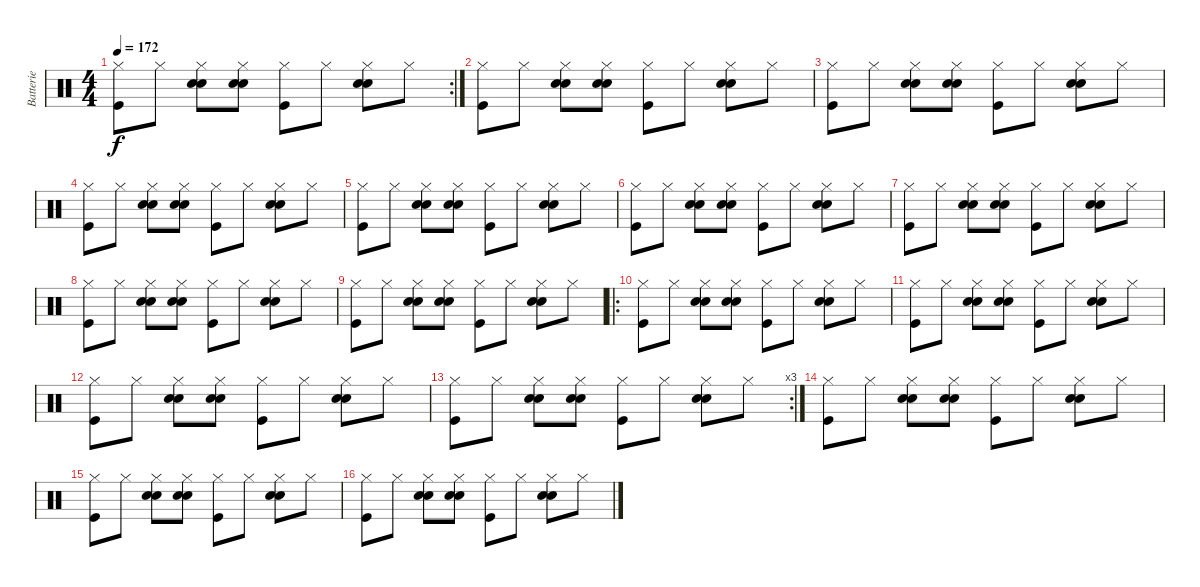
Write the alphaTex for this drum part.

\track ("Batterie" "Batterie") {instrument percussion}
\staff {score}
\articulation defaults
\rc 2
\ts (4 4)
\tempo 172
\clef neutral
\ks c
("Hi-Hat (closed)" "Kick (hit)").8{dy f} "Hi-Hat (closed)".8 ("Electric Snare (hit)" "Hi-Hat (closed)" "Snare (hit) 2").8 ("Electric Snare (hit)" "Hi-Hat (closed)" "Snare (hit) 2").8 ("Hi-Hat (closed)" "Kick (hit)").8 "Hi-Hat (closed)".8 ("Electric Snare (hit)" "Hi-Hat (closed)" "Snare (hit) 2").8 "Hi-Hat (closed)".8 |
("Hi-Hat (closed)" "Kick (hit)").8 "Hi-Hat (closed)".8 ("Electric Snare (hit)" "Hi-Hat (closed)" "Snare (hit) 2").8 ("Electric Snare (hit)" "Hi-Hat (closed)" "Snare (hit) 2").8 ("Hi-Hat (closed)" "Kick (hit)").8 "Hi-Hat (closed)".8 ("Electric Snare (hit)" "Hi-Hat (closed)" "Snare (hit) 2").8 "Hi-Hat (closed)".8 |
("Hi-Hat (closed)" "Kick (hit)").8 "Hi-Hat (closed)".8 ("Electric Snare (hit)" "Hi-Hat (closed)" "Snare (hit) 2").8 ("Electric Snare (hit)" "Hi-Hat (closed)" "Snare (hit) 2").8 ("Hi-Hat (closed)" "Kick (hit)").8 "Hi-Hat (closed)".8 ("Electric Snare (hit)" "Hi-Hat (closed)" "Snare (hit) 2").8 "Hi-Hat (closed)".8 |
("Hi-Hat (closed)" "Kick (hit)").8 "Hi-Hat (closed)".8 ("Electric Snare (hit)" "Hi-Hat (closed)" "Snare (hit) 2").8 ("Electric Snare (hit)" "Hi-Hat (closed)" "Snare (hit) 2").8 ("Hi-Hat (closed)" "Kick (hit)").8 "Hi-Hat (closed)".8 ("Electric Snare (hit)" "Hi-Hat (closed)" "Snare (hit) 2").8 "Hi-Hat (closed)".8 |
("Hi-Hat (closed)" "Kick (hit)").8 "Hi-Hat (closed)".8 ("Electric Snare (hit)" "Hi-Hat (closed)" "Snare (hit) 2").8 ("Electric Snare (hit)" "Hi-Hat (closed)" "Snare (hit) 2").8 ("Hi-Hat (closed)" "Kick (hit)").8 "Hi-Hat (closed)".8 ("Electric Snare (hit)" "Hi-Hat (closed)" "Snare (hit) 2").8 "Hi-Hat (closed)".8 |
("Hi-Hat (closed)" "Kick (hit)").8 "Hi-Hat (closed)".8 ("Electric Snare (hit)" "Hi-Hat (closed)" "Snare (hit) 2").8 ("Electric Snare (hit)" "Hi-Hat (closed)" "Snare (hit) 2").8 ("Hi-Hat (closed)" "Kick (hit)").8 "Hi-Hat (closed)".8 ("Electric Snare (hit)" "Hi-Hat (closed)" "Snare (hit) 2").8 "Hi-Hat (closed)".8 |
("Hi-Hat (closed)" "Kick (hit)").8 "Hi-Hat (closed)".8 ("Electric Snare (hit)" "Hi-Hat (closed)" "Snare (hit) 2").8 ("Electric Snare (hit)" "Hi-Hat (closed)" "Snare (hit) 2").8 ("Hi-Hat (closed)" "Kick (hit)").8 "Hi-Hat (closed)".8 ("Electric Snare (hit)" "Hi-Hat (closed)" "Snare (hit) 2").8 "Hi-Hat (closed)".8 |
("Hi-Hat (closed)" "Kick (hit)").8 "Hi-Hat (closed)".8 ("Electric Snare (hit)" "Hi-Hat (closed)" "Snare (hit) 2").8 ("Electric Snare (hit)" "Hi-Hat (closed)" "Snare (hit) 2").8 ("Hi-Hat (closed)" "Kick (hit)").8 "Hi-Hat (closed)".8 ("Electric Snare (hit)" "Hi-Hat (closed)" "Snare (hit) 2").8 "Hi-Hat (closed)".8 |
("Hi-Hat (closed)" "Kick (hit)").8 "Hi-Hat (closed)".8 ("Electric Snare (hit)" "Hi-Hat (closed)" "Snare (hit) 2").8 ("Electric Snare (hit)" "Hi-Hat (closed)" "Snare (hit) 2").8 ("Hi-Hat (closed)" "Kick (hit)").8 "Hi-Hat (closed)".8 ("Electric Snare (hit)" "Hi-Hat (closed)" "Snare (hit) 2").8 "Hi-Hat (closed)".8 |
\ro
("Hi-Hat (closed)" "Kick (hit)").8 "Hi-Hat (closed)".8 ("Electric Snare (hit)" "Hi-Hat (closed)" "Snare (hit) 2").8 ("Electric Snare (hit)" "Hi-Hat (closed)" "Snare (hit) 2").8 ("Hi-Hat (closed)" "Kick (hit)").8 "Hi-Hat (closed)".8 ("Electric Snare (hit)" "Hi-Hat (closed)" "Snare (hit) 2").8 "Hi-Hat (closed)".8 |
("Hi-Hat (closed)" "Kick (hit)").8 "Hi-Hat (closed)".8 ("Electric Snare (hit)" "Hi-Hat (closed)" "Snare (hit) 2").8 ("Electric Snare (hit)" "Hi-Hat (closed)" "Snare (hit) 2").8 ("Hi-Hat (closed)" "Kick (hit)").8 "Hi-Hat (closed)".8 ("Electric Snare (hit)" "Hi-Hat (closed)" "Snare (hit) 2").8 "Hi-Hat (closed)".8 |
("Hi-Hat (closed)" "Kick (hit)").8 "Hi-Hat (closed)".8 ("Electric Snare (hit)" "Hi-Hat (closed)" "Snare (hit) 2").8 ("Electric Snare (hit)" "Hi-Hat (closed)" "Snare (hit) 2").8 ("Hi-Hat (closed)" "Kick (hit)").8 "Hi-Hat (closed)".8 ("Electric Snare (hit)" "Hi-Hat (closed)" "Snare (hit) 2").8 "Hi-Hat (closed)".8 |
\rc 3
("Hi-Hat (closed)" "Kick (hit)").8 "Hi-Hat (closed)".8 ("Electric Snare (hit)" "Hi-Hat (closed)" "Snare (hit) 2").8 ("Electric Snare (hit)" "Hi-Hat (closed)" "Snare (hit) 2").8 ("Hi-Hat (closed)" "Kick (hit)").8 "Hi-Hat (closed)".8 ("Electric Snare (hit)" "Hi-Hat (closed)" "Snare (hit) 2").8 "Hi-Hat (closed)".8 |
("Hi-Hat (closed)" "Kick (hit)").8 "Hi-Hat (closed)".8 ("Electric Snare (hit)" "Hi-Hat (closed)" "Snare (hit) 2").8 ("Electric Snare (hit)" "Hi-Hat (closed)" "Snare (hit) 2").8 ("Hi-Hat (closed)" "Kick (hit)").8 "Hi-Hat (closed)".8 ("Electric Snare (hit)" "Hi-Hat (closed)" "Snare (hit) 2").8 "Hi-Hat (closed)".8 |
("Hi-Hat (closed)" "Kick (hit)").8 "Hi-Hat (closed)".8 ("Electric Snare (hit)" "Hi-Hat (closed)" "Snare (hit) 2").8 ("Electric Snare (hit)" "Hi-Hat (closed)" "Snare (hit) 2").8 ("Hi-Hat (closed)" "Kick (hit)").8 "Hi-Hat (closed)".8 ("Electric Snare (hit)" "Hi-Hat (closed)" "Snare (hit) 2").8 "Hi-Hat (closed)".8 |
("Hi-Hat (closed)" "Kick (hit)").8 "Hi-Hat (closed)".8 ("Electric Snare (hit)" "Hi-Hat (closed)" "Snare (hit) 2").8 ("Electric Snare (hit)" "Hi-Hat (closed)" "Snare (hit) 2").8 ("Hi-Hat (closed)" "Kick (hit)").8 "Hi-Hat (closed)".8 ("Electric Snare (hit)" "Hi-Hat (closed)" "Snare (hit) 2").8 "Hi-Hat (closed)".8
